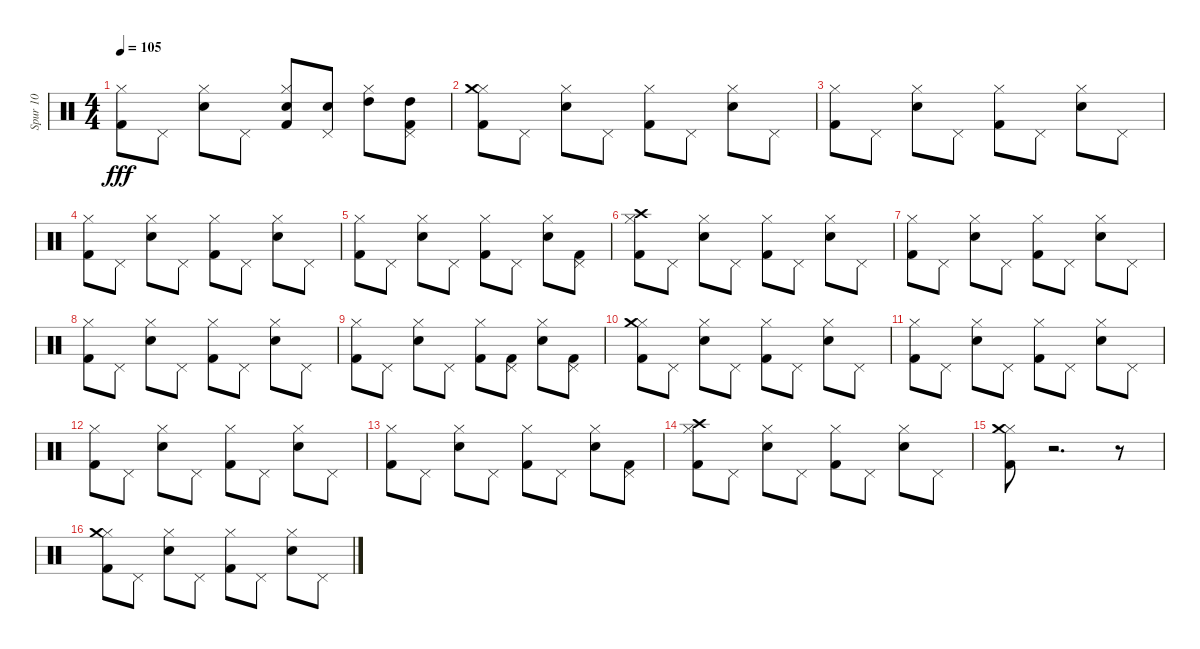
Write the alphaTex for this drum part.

\track ("Spur 10" "Spur 10") {instrument percussion}
\staff {score}
\articulation defaults
\ts (4 4)
\tempo 105
\clef neutral
\ks c
("Kick (hit) 2" "Hi-Hat (closed)").8{dy fff} "Pedal Hi-Hat (hit)".8 ("Electric Snare (hit)" "Hi-Hat (closed)").8 "Pedal Hi-Hat (hit)".8 ("Electric Snare (hit)" "Hi-Hat (closed)" "Kick (hit) 2").8 ("Electric Snare (hit)" "Pedal Hi-Hat (hit)").8 ("High Tom (hit)" "Hi-Hat (closed)").8 ("High Tom (hit)" "Pedal Hi-Hat (hit)" "Kick (hit) 2").8 |
("Hi-Hat (closed)" "Crash medium (hit)" "Kick (hit) 2").8 "Pedal Hi-Hat (hit)".8 ("Hi-Hat (closed)" "Electric Snare (hit)").8 "Pedal Hi-Hat (hit)".8 ("Hi-Hat (closed)" "Kick (hit) 2").8 "Pedal Hi-Hat (hit)".8 ("Electric Snare (hit)" "Hi-Hat (closed)").8 "Pedal Hi-Hat (hit)".8 |
("Kick (hit) 2" "Hi-Hat (closed)").8 "Pedal Hi-Hat (hit)".8 ("Electric Snare (hit)" "Hi-Hat (closed)").8 "Pedal Hi-Hat (hit)".8 ("Hi-Hat (closed)" "Kick (hit) 2").8 "Pedal Hi-Hat (hit)".8 ("Electric Snare (hit)" "Hi-Hat (closed)").8 "Pedal Hi-Hat (hit)".8 |
("Kick (hit) 2" "Hi-Hat (closed)").8 "Pedal Hi-Hat (hit)".8 ("Electric Snare (hit)" "Hi-Hat (closed)").8 "Pedal Hi-Hat (hit)".8 ("Kick (hit) 2" "Hi-Hat (closed)").8 "Pedal Hi-Hat (hit)".8 ("Electric Snare (hit)" "Hi-Hat (closed)").8 "Pedal Hi-Hat (hit)".8 |
("Kick (hit) 2" "Hi-Hat (closed)").8 "Pedal Hi-Hat (hit)".8 ("Electric Snare (hit)" "Hi-Hat (closed)").8 "Pedal Hi-Hat (hit)".8 ("Hi-Hat (closed)" "Kick (hit) 2").8 "Pedal Hi-Hat (hit)".8 ("Electric Snare (hit)" "Hi-Hat (closed)").8 ("Pedal Hi-Hat (hit)" "Kick (hit) 2").8 |
("Hi-Hat (closed)" "Crash high (hit)" "Kick (hit) 2").8 "Pedal Hi-Hat (hit)".8 ("Hi-Hat (closed)" "Electric Snare (hit)").8 "Pedal Hi-Hat (hit)".8 ("Hi-Hat (closed)" "Kick (hit) 2").8 "Pedal Hi-Hat (hit)".8 ("Electric Snare (hit)" "Hi-Hat (closed)").8 "Pedal Hi-Hat (hit)".8 |
("Kick (hit) 2" "Hi-Hat (closed)").8 "Pedal Hi-Hat (hit)".8 ("Electric Snare (hit)" "Hi-Hat (closed)").8 "Pedal Hi-Hat (hit)".8 ("Hi-Hat (closed)" "Kick (hit) 2").8 "Pedal Hi-Hat (hit)".8 ("Electric Snare (hit)" "Hi-Hat (closed)").8 "Pedal Hi-Hat (hit)".8 |
("Kick (hit) 2" "Hi-Hat (closed)").8 "Pedal Hi-Hat (hit)".8 ("Electric Snare (hit)" "Hi-Hat (closed)").8 "Pedal Hi-Hat (hit)".8 ("Kick (hit) 2" "Hi-Hat (closed)").8 "Pedal Hi-Hat (hit)".8 ("Electric Snare (hit)" "Hi-Hat (closed)").8 "Pedal Hi-Hat (hit)".8 |
("Kick (hit) 2" "Hi-Hat (closed)").8 "Pedal Hi-Hat (hit)".8 ("Electric Snare (hit)" "Hi-Hat (closed)").8 "Pedal Hi-Hat (hit)".8 ("Hi-Hat (closed)" "Kick (hit) 2").8 ("Kick (hit) 2" "Pedal Hi-Hat (hit)").8 ("Electric Snare (hit)" "Hi-Hat (closed)").8 ("Pedal Hi-Hat (hit)" "Kick (hit) 2").8 |
("Hi-Hat (closed)" "Crash medium (hit)" "Kick (hit) 2").8 "Pedal Hi-Hat (hit)".8 ("Hi-Hat (closed)" "Electric Snare (hit)").8 "Pedal Hi-Hat (hit)".8 ("Hi-Hat (closed)" "Kick (hit) 2").8 "Pedal Hi-Hat (hit)".8 ("Electric Snare (hit)" "Hi-Hat (closed)").8 "Pedal Hi-Hat (hit)".8 |
("Kick (hit) 2" "Hi-Hat (closed)").8 "Pedal Hi-Hat (hit)".8 ("Electric Snare (hit)" "Hi-Hat (closed)").8 "Pedal Hi-Hat (hit)".8 ("Hi-Hat (closed)" "Kick (hit) 2").8 "Pedal Hi-Hat (hit)".8 ("Electric Snare (hit)" "Hi-Hat (closed)").8 "Pedal Hi-Hat (hit)".8 |
("Kick (hit) 2" "Hi-Hat (closed)").8 "Pedal Hi-Hat (hit)".8 ("Electric Snare (hit)" "Hi-Hat (closed)").8 "Pedal Hi-Hat (hit)".8 ("Kick (hit) 2" "Hi-Hat (closed)").8 "Pedal Hi-Hat (hit)".8 ("Electric Snare (hit)" "Hi-Hat (closed)").8 "Pedal Hi-Hat (hit)".8 |
("Kick (hit) 2" "Hi-Hat (closed)").8 "Pedal Hi-Hat (hit)".8 ("Electric Snare (hit)" "Hi-Hat (closed)").8 "Pedal Hi-Hat (hit)".8 ("Hi-Hat (closed)" "Kick (hit) 2").8 "Pedal Hi-Hat (hit)".8 ("Electric Snare (hit)" "Hi-Hat (closed)").8 ("Pedal Hi-Hat (hit)" "Kick (hit) 2").8 |
("Hi-Hat (closed)" "Crash high (hit)" "Kick (hit) 2").8 "Pedal Hi-Hat (hit)".8 ("Hi-Hat (closed)" "Electric Snare (hit)").8 "Pedal Hi-Hat (hit)".8 ("Hi-Hat (closed)" "Kick (hit) 2").8 "Pedal Hi-Hat (hit)".8 ("Electric Snare (hit)" "Hi-Hat (closed)").8 "Pedal Hi-Hat (hit)".8 |
("Kick (hit) 2" "Hi-Hat (closed)" "Crash medium (hit)").8 r.2{d} r.8 |
("Hi-Hat (closed)" "Crash medium (hit)" "Kick (hit) 2").8 "Pedal Hi-Hat (hit)".8 ("Hi-Hat (closed)" "Electric Snare (hit)").8 "Pedal Hi-Hat (hit)".8 ("Hi-Hat (closed)" "Kick (hit) 2").8 "Pedal Hi-Hat (hit)".8 ("Electric Snare (hit)" "Hi-Hat (closed)").8 "Pedal Hi-Hat (hit)".8
